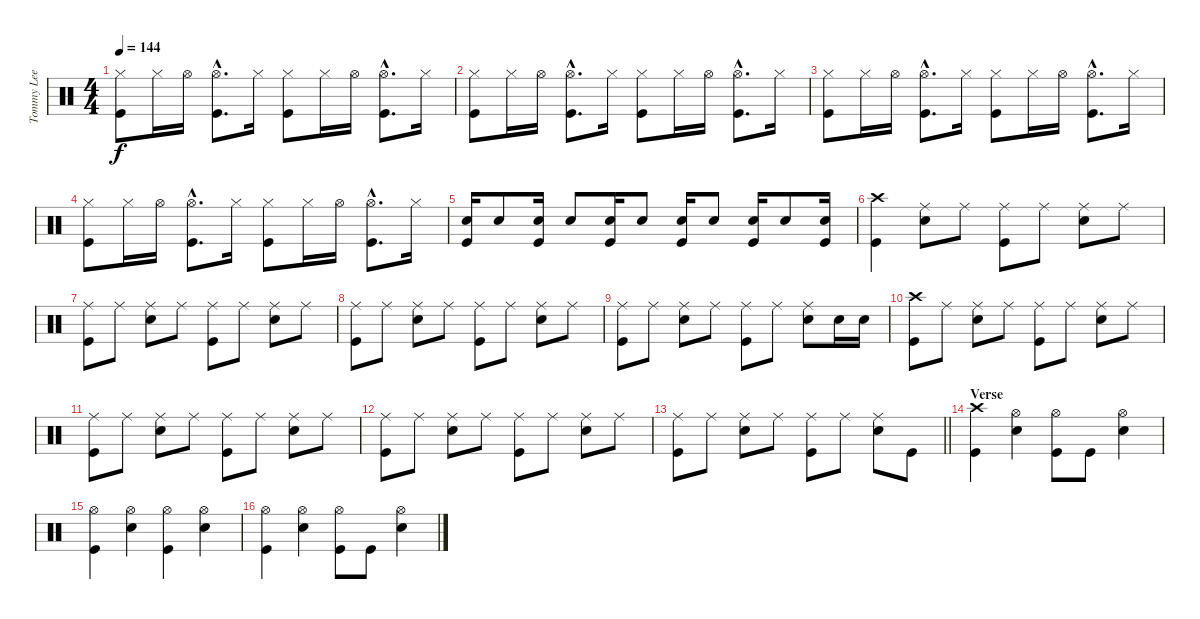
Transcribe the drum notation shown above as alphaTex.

\track ("Tommy Lee" "Tommy Lee") {instrument percussion}
\staff {score}
\articulation defaults
\ts (4 4)
\tempo 144
\clef neutral
\ks c
("Hi-Hat (closed)" "Kick (hit)").8{dy f} "Hi-Hat (closed)".16 "Hi-Hat (open)".16 ("Hi-Hat (open)"{hac} "Kick (hit)"{hac}).8{d} "Hi-Hat (closed)".16 ("Hi-Hat (closed)" "Kick (hit)").8 "Hi-Hat (closed)".16 "Hi-Hat (open)".16 ("Hi-Hat (open)"{hac} "Kick (hit)"{hac}).8{d} "Hi-Hat (closed)".16 |
("Hi-Hat (closed)" "Kick (hit)").8 "Hi-Hat (closed)".16 "Hi-Hat (open)".16 ("Hi-Hat (open)"{hac} "Kick (hit)"{hac}).8{d} "Hi-Hat (closed)".16 ("Hi-Hat (closed)" "Kick (hit)").8 "Hi-Hat (closed)".16 "Hi-Hat (open)".16 ("Hi-Hat (open)"{hac} "Kick (hit)"{hac}).8{d} "Hi-Hat (closed)".16 |
("Hi-Hat (closed)" "Kick (hit)").8 "Hi-Hat (closed)".16 "Hi-Hat (open)".16 ("Hi-Hat (open)"{hac} "Kick (hit)"{hac}).8{d} "Hi-Hat (closed)".16 ("Hi-Hat (closed)" "Kick (hit)").8 "Hi-Hat (closed)".16 "Hi-Hat (open)".16 ("Hi-Hat (open)"{hac} "Kick (hit)"{hac}).8{d} "Hi-Hat (closed)".16 |
("Hi-Hat (closed)" "Kick (hit)").8 "Hi-Hat (closed)".16 "Hi-Hat (open)".16 ("Hi-Hat (open)"{hac} "Kick (hit)"{hac}).8{d} "Hi-Hat (closed)".16 ("Hi-Hat (closed)" "Kick (hit)").8 "Hi-Hat (closed)".16 "Hi-Hat (open)".16 ("Hi-Hat (open)"{hac} "Kick (hit)"{hac}).8{d} "Hi-Hat (closed)".16 |
("Snare (hit) 2" "Kick (hit)").16 "Snare (hit) 2".8 ("Snare (hit) 2" "Kick (hit)").16 "Snare (hit) 2".8 ("Snare (hit) 2" "Kick (hit)").16 "Snare (hit) 2".8 ("Snare (hit) 2" "Kick (hit)").16 "Snare (hit) 2".8 ("Snare (hit) 2" "Kick (hit)").16 "Snare (hit) 2".8 ("Snare (hit) 2" "Kick (hit)").16 |
("Crash high (hit)" "Kick (hit)").4 ("Ride (middle)" "Snare (hit) 2").8 "Ride (middle)".8 ("Ride (middle)" "Kick (hit)").8 "Ride (middle)".8 ("Ride (middle)" "Snare (hit) 2").8 "Ride (middle)".8 |
("Ride (middle)" "Kick (hit)").8 "Ride (middle)".8 ("Ride (middle)" "Snare (hit) 2").8 "Ride (middle)".8 ("Ride (middle)" "Kick (hit)").8 "Ride (middle)".8 ("Ride (middle)" "Snare (hit) 2").8 "Ride (middle)".8 |
("Ride (middle)" "Kick (hit)").8 "Ride (middle)".8 ("Ride (middle)" "Snare (hit) 2").8 "Ride (middle)".8 ("Ride (middle)" "Kick (hit)").8 "Ride (middle)".8 ("Ride (middle)" "Snare (hit) 2").8 "Ride (middle)".8 |
("Ride (middle)" "Kick (hit)").8 "Ride (middle)".8 ("Ride (middle)" "Snare (hit) 2").8 "Ride (middle)".8 ("Ride (middle)" "Kick (hit)").8 "Ride (middle)".8 ("Ride (middle)" "Snare (hit) 2").8 "Snare (hit) 2".16 "Snare (hit) 2".16 |
("Crash high (hit)" "Kick (hit)").8 "Ride (middle)".8 ("Ride (middle)" "Snare (hit) 2").8 "Ride (middle)".8 ("Ride (middle)" "Kick (hit)").8 "Ride (middle)".8 ("Ride (middle)" "Snare (hit) 2").8 "Ride (middle)".8 |
("Ride (middle)" "Kick (hit)").8 "Ride (middle)".8 ("Ride (middle)" "Snare (hit) 2").8 "Ride (middle)".8 ("Ride (middle)" "Kick (hit)").8 "Ride (middle)".8 ("Ride (middle)" "Snare (hit) 2").8 "Ride (middle)".8 |
("Ride (middle)" "Kick (hit)").8 "Ride (middle)".8 ("Ride (middle)" "Snare (hit) 2").8 "Ride (middle)".8 ("Ride (middle)" "Kick (hit)").8 "Ride (middle)".8 ("Ride (middle)" "Snare (hit) 2").8 "Ride (middle)".8 |
\barLineRight lightlight
("Ride (middle)" "Kick (hit)").8 "Ride (middle)".8 ("Ride (middle)" "Snare (hit) 2").8 "Ride (middle)".8 ("Ride (middle)" "Kick (hit)").8 "Ride (middle)".8 ("Ride (middle)" "Snare (hit) 2").8 "Kick (hit)".8 |
\section ("" "Verse")
("Crash high (hit)" "Kick (hit)").4 ("Hi-Hat (open)" "Snare (hit) 2").4 ("Hi-Hat (open)" "Kick (hit)").8 "Kick (hit)".8 ("Hi-Hat (open)" "Snare (hit) 2").4 |
("Hi-Hat (open)" "Kick (hit)").4 ("Hi-Hat (open)" "Snare (hit) 2").4 ("Hi-Hat (open)" "Kick (hit)").4 ("Hi-Hat (open)" "Snare (hit) 2").4 |
("Hi-Hat (open)" "Kick (hit)").4 ("Hi-Hat (open)" "Snare (hit) 2").4 ("Hi-Hat (open)" "Kick (hit)").8 "Kick (hit)".8 ("Hi-Hat (open)" "Snare (hit) 2").4
